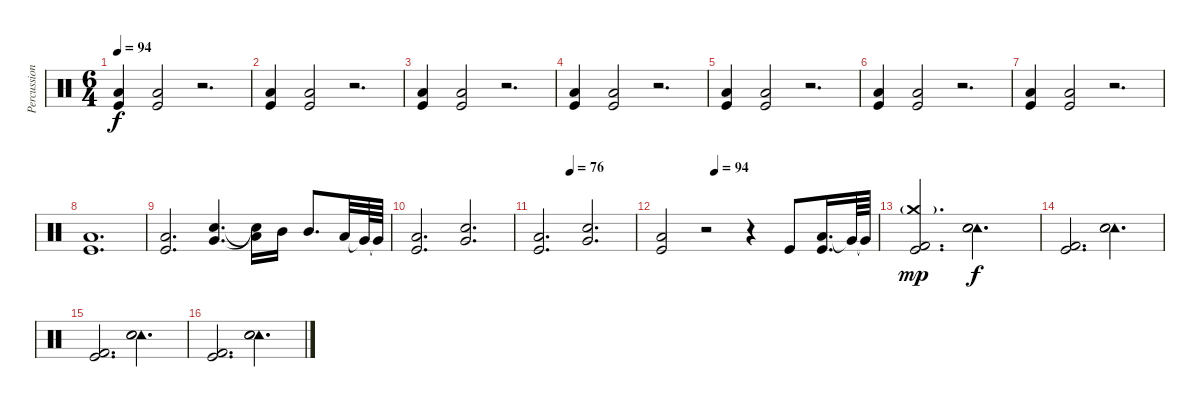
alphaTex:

\track ("Percussion" "Percussion") {instrument percussion}
\staff {score}
\articulation defaults
\ts (6 4)
\tempo 94
\clef neutral
\ks c
("Low Floor Tom (hit)" "Kick (hit)").4{dy f volume 16} ("Low Floor Tom (hit)" "Kick (hit)").2 r.2{d} |
("Low Floor Tom (hit)" "Kick (hit)").4 ("Low Floor Tom (hit)" "Kick (hit)").2 r.2{d} |
("Low Floor Tom (hit)" "Kick (hit)").4 ("Low Floor Tom (hit)" "Kick (hit)").2 r.2{d} |
("Low Floor Tom (hit)" "Kick (hit)").4 ("Low Floor Tom (hit)" "Kick (hit)").2 r.2{d} |
("Low Floor Tom (hit)" "Kick (hit)").4 ("Low Floor Tom (hit)" "Kick (hit)").2 r.2{d} |
("Low Floor Tom (hit)" "Kick (hit)").4 ("Low Floor Tom (hit)" "Kick (hit)").2 r.2{d} |
("Low Floor Tom (hit)" "Kick (hit)").4 ("Low Floor Tom (hit)" "Kick (hit)").2 r.2{d} |
("Low Floor Tom (hit)" "Kick (hit)").1{d} |
("Low Floor Tom (hit)" "Kick (hit)").2{d} ("Very Low Tom (hit)" "Electric Snare (hit)").4{d} ("Snare (hit)"{t} "Low Tom (hit)"{t}).16 "Mid Tom (hit)".16 "Mid Tom (hit)".8{d} "Low Tom (hit)".32 "Very Low Tom (hit)"{t}.64 "Very Low Tom (hit)"{t}.64 |
("Low Floor Tom (hit)" "Kick (hit)").2{d} ("Very Low Tom (hit)" "Electric Snare (hit)").2{d} |
\tempo (76 0.3333333333333333)
("Low Floor Tom (hit)" "Kick (hit)").2{d} ("Very Low Tom (hit)" "Electric Snare (hit)").2{d} |
\tempo (94 0.25)
("Low Floor Tom (hit)" "Kick (hit)").2 r.2 r.4 "Kick (hit)".8 ("Low Tom (hit)" "Kick (hit)").16{d} "Very Low Tom (hit)"{t}.64 "Very Low Tom (hit)"{t}.64 |
("Crash medium (hit)"{g} "Kick (hit) 2" "Kick (hit)").2{d dy mp} ("Tambourine (hit)" "Snare (hit) 2" "Electric Snare (hit)").2{d dy f} |
("Kick (hit) 2" "Kick (hit)").2{d} ("Tambourine (hit)" "Snare (hit) 2" "Electric Snare (hit)").2{d} |
("Kick (hit) 2" "Kick (hit)").2{d} ("Tambourine (hit)" "Snare (hit) 2" "Electric Snare (hit)").2{d} |
("Kick (hit) 2" "Kick (hit)").2{d} ("Tambourine (hit)" "Snare (hit) 2" "Electric Snare (hit)").2{d}
